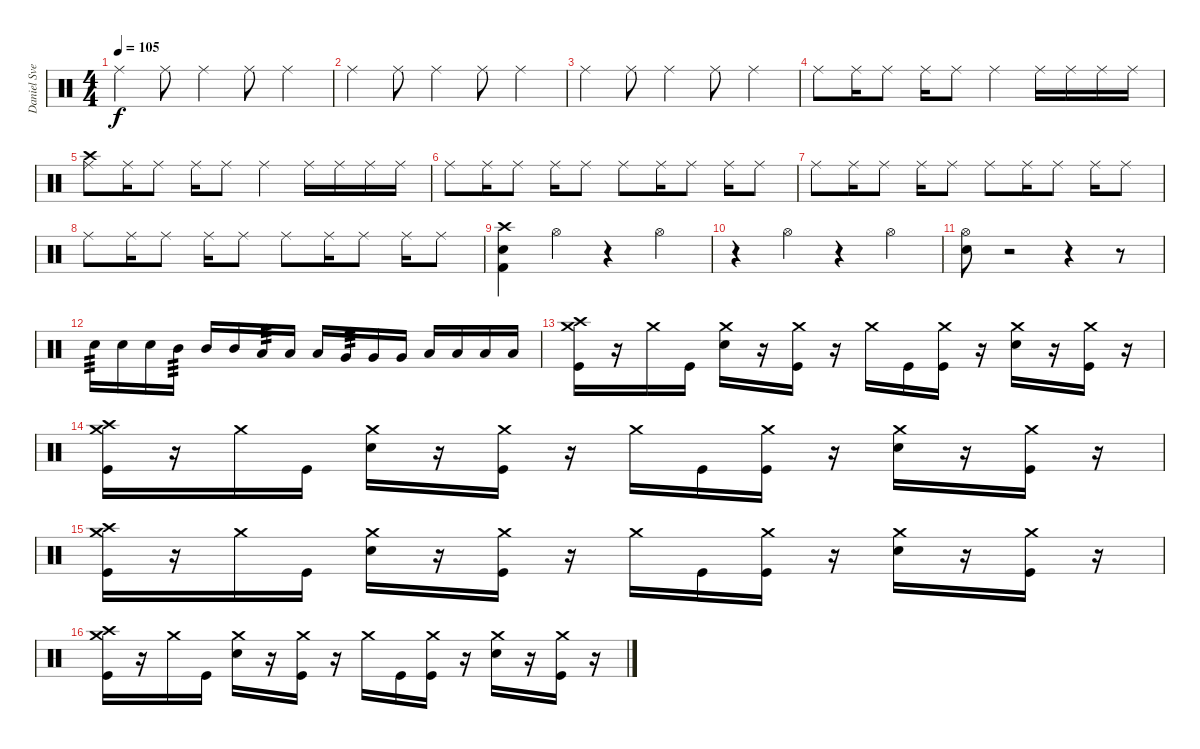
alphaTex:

\track ("Daniel Svensson" "Daniel Sve") {instrument percussion}
\staff {score}
\articulation defaults
\ts (4 4)
\tempo 105
\clef neutral
\ks c "Ride (middle)".4{dy f} "Ride (middle)".8 "Ride (middle)".4 "Ride (middle)".8 "Ride (middle)".4
|
"Ride (middle)".4 "Ride (middle)".8 "Ride (middle)".4 "Ride (middle)".8 "Ride (middle)".4 |
"Ride (middle)".4 "Ride (middle)".8 "Ride (middle)".4 "Ride (middle)".8 "Ride (middle)".4 |
"Ride (middle)".8 "Ride (middle)".16 "Ride (middle)".8 "Ride (middle)".16 "Ride (middle)".8 "Ride (middle)".4 "Ride (middle)".16 "Ride (middle)".16 "Ride (middle)".16 "Ride (middle)".16 |
("Crash high (hit)" "Ride (middle)").8 "Ride (middle)".16 "Ride (middle)".8 "Ride (middle)".16 "Ride (middle)".8 "Ride (middle)".4 "Ride (middle)".16 "Ride (middle)".16 "Ride (middle)".16 "Ride (middle)".16 |
"Ride (middle)".8 "Ride (middle)".16 "Ride (middle)".8 "Ride (middle)".16 "Ride (middle)".8 "Ride (middle)".8 "Ride (middle)".16 "Ride (middle)".8 "Ride (middle)".16 "Ride (middle)".8 |
"Ride (middle)".8 "Ride (middle)".16 "Ride (middle)".8 "Ride (middle)".16 "Ride (middle)".8 "Ride (middle)".8 "Ride (middle)".16 "Ride (middle)".8 "Ride (middle)".16 "Ride (middle)".8 |
"Ride (middle)".8 "Ride (middle)".16 "Ride (middle)".8 "Ride (middle)".16 "Ride (middle)".8 "Ride (middle)".8 "Ride (middle)".16 "Ride (middle)".8 "Ride (middle)".16 "Ride (middle)".8 |
("Crash high (hit)" "Electric Snare (hit)" "Kick (hit) 2").4 "Hi-Hat (open)".4 r.4 "Hi-Hat (open)".4 |
r.4 "Hi-Hat (open)".4 r.4 "Hi-Hat (open)".4 |
("Electric Snare (hit)" "Hi-Hat (open)").8 r.2 r.4 r.8 |
"Electric Snare (hit)".16{tp 3} "Electric Snare (hit)".16 "Electric Snare (hit)".16 "Mid Tom (hit)".16{tp 3} "Mid Tom (hit)".16 "Mid Tom (hit)".16 "Low Tom (hit)".16{tp 3} "Low Tom (hit)".16 "Low Tom (hit)".16 "Very Low Tom (hit)".16{tp 3} "Very Low Tom (hit)".16 "Very Low Tom (hit)".16 "Low Floor Tom (hit)".16 "Low Floor Tom (hit)".16 "Low Floor Tom (hit)".16 "Low Floor Tom (hit)".16 |
("Crash medium (hit)" "Crash high (hit)" "Kick (hit)").16 r.16 "Crash medium (hit)".16 "Kick (hit)".16 ("Crash medium (hit)" "Electric Snare (hit)").16 r.16 ("Crash medium (hit)" "Kick (hit)").16 r.16 "Crash medium (hit)".16 "Kick (hit)".16 ("Crash medium (hit)" "Kick (hit)").16 r.16 ("Crash medium (hit)" "Electric Snare (hit)").16 r.16 ("Crash medium (hit)" "Kick (hit)").16 r.16 |
("Crash medium (hit)" "Crash high (hit)" "Kick (hit)").16 r.16 "Crash medium (hit)".16 "Kick (hit)".16 ("Crash medium (hit)" "Electric Snare (hit)").16 r.16 ("Crash medium (hit)" "Kick (hit)").16 r.16 "Crash medium (hit)".16 "Kick (hit)".16 ("Crash medium (hit)" "Kick (hit)").16 r.16 ("Crash medium (hit)" "Electric Snare (hit)").16 r.16 ("Crash medium (hit)" "Kick (hit)").16 r.16 |
("Crash medium (hit)" "Crash high (hit)" "Kick (hit)").16 r.16 "Crash medium (hit)".16 "Kick (hit)".16 ("Crash medium (hit)" "Electric Snare (hit)").16 r.16 ("Crash medium (hit)" "Kick (hit)").16 r.16 "Crash medium (hit)".16 "Kick (hit)".16 ("Crash medium (hit)" "Kick (hit)").16 r.16 ("Crash medium (hit)" "Electric Snare (hit)").16 r.16 ("Crash medium (hit)" "Kick (hit)").16 r.16 |
("Crash medium (hit)" "Crash high (hit)" "Kick (hit)").16 r.16 "Crash medium (hit)".16 "Kick (hit)".16 ("Crash medium (hit)" "Electric Snare (hit)").16 r.16 ("Crash medium (hit)" "Kick (hit)").16 r.16 "Crash medium (hit)".16 "Kick (hit)".16 ("Crash medium (hit)" "Kick (hit)").16 r.16 ("Crash medium (hit)" "Electric Snare (hit)").16 r.16 ("Crash medium (hit)" "Kick (hit)").16 r.16
